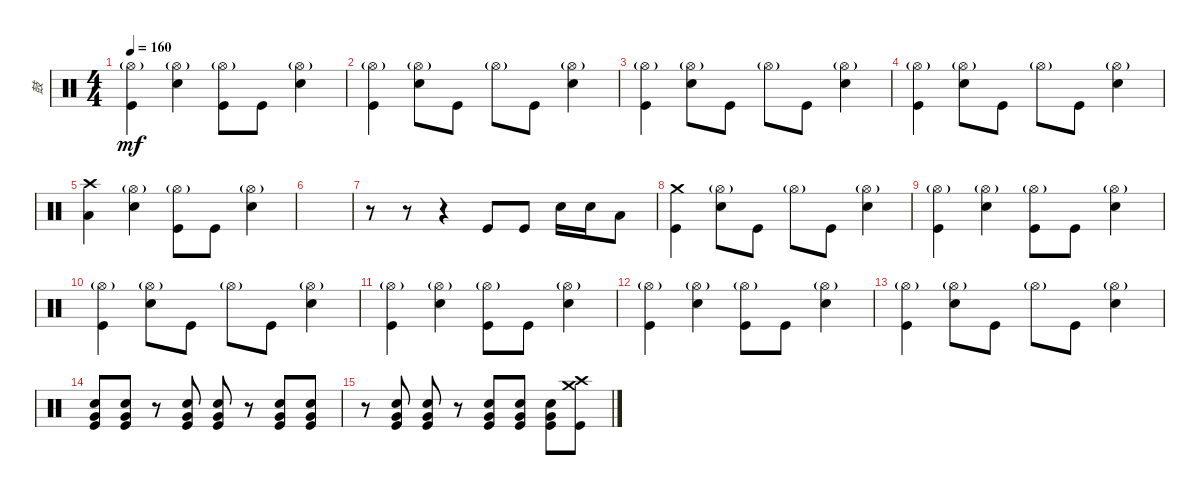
\track ("鼓" "鼓") {instrument percussion}
\staff {score}
\articulation defaults
\ts (4 4)
\tempo 160
\clef neutral
\ks c
("Kick (hit)" "Hi-Hat (open)"{g}).4{dy mf} ("Hi-Hat (open)"{g} "Snare (hit) 2").4 ("Kick (hit)" "Hi-Hat (open)"{g}).8 "Kick (hit)".8 ("Snare (hit) 2" "Hi-Hat (open)"{g}).4 |
("Kick (hit)" "Hi-Hat (open)"{g}).4 ("Snare (hit) 2" "Hi-Hat (open)"{g}).8 "Kick (hit)".8 "Hi-Hat (open)"{g}.8 "Kick (hit)".8 ("Snare (hit) 2" "Hi-Hat (open)"{g}).4 |
("Kick (hit)" "Hi-Hat (open)"{g}).4 ("Snare (hit) 2" "Hi-Hat (open)"{g}).8 "Kick (hit)".8 "Hi-Hat (open)"{g}.8 "Kick (hit)".8 ("Snare (hit) 2" "Hi-Hat (open)"{g}).4 |
("Kick (hit)" "Hi-Hat (open)"{g}).4 ("Snare (hit) 2" "Hi-Hat (open)"{g}).8 "Kick (hit)".8 "Hi-Hat (open)"{g}.8 "Kick (hit)".8 ("Snare (hit) 2" "Hi-Hat (open)"{g}).4 |
("Low Floor Tom (hit)" "Crash high (hit)").4 ("Hi-Hat (open)"{g} "Snare (hit) 2").4 ("Kick (hit)" "Hi-Hat (open)"{g}).8 "Kick (hit)".8 ("Snare (hit) 2" "Hi-Hat (open)"{g}).4 |
|
r.8 r.8 r.4 "Kick (hit)".8 "Kick (hit)".8 "Snare (hit) 2".16 "Snare (hit) 2".16 "Low Tom (hit)".8 |
("Kick (hit)" "Crash medium (hit)").4 ("Snare (hit) 2" "Hi-Hat (open)"{g}).8 "Kick (hit)".8 "Hi-Hat (open)"{g}.8 "Kick (hit)".8 ("Snare (hit) 2" "Hi-Hat (open)"{g}).4 |
("Kick (hit)" "Hi-Hat (open)"{g}).4 ("Hi-Hat (open)"{g} "Snare (hit) 2").4 ("Kick (hit)" "Hi-Hat (open)"{g}).8 "Kick (hit)".8 ("Snare (hit) 2" "Hi-Hat (open)"{g}).4 |
("Kick (hit)" "Hi-Hat (open)"{g}).4 ("Snare (hit) 2" "Hi-Hat (open)"{g}).8 "Kick (hit)".8 "Hi-Hat (open)"{g}.8 "Kick (hit)".8 ("Snare (hit) 2" "Hi-Hat (open)"{g}).4 |
("Kick (hit)" "Hi-Hat (open)"{g}).4 ("Hi-Hat (open)"{g} "Snare (hit) 2").4 ("Kick (hit)" "Hi-Hat (open)"{g}).8 "Kick (hit)".8 ("Snare (hit) 2" "Hi-Hat (open)"{g}).4 |
("Kick (hit)" "Hi-Hat (open)"{g}).4 ("Hi-Hat (open)"{g} "Snare (hit) 2").4 ("Kick (hit)" "Hi-Hat (open)"{g}).8 "Kick (hit)".8 ("Snare (hit) 2" "Hi-Hat (open)"{g}).4 |
("Kick (hit)" "Hi-Hat (open)"{g}).4 ("Snare (hit) 2" "Hi-Hat (open)"{g}).8 "Kick (hit)".8 "Hi-Hat (open)"{g}.8 "Kick (hit)".8 ("Snare (hit) 2" "Hi-Hat (open)"{g}).4 |
("Kick (hit)" "Very Low Tom (hit)" "Snare (hit) 2").8 ("Kick (hit)" "Very Low Tom (hit)" "Snare (hit) 2").8 r.8 ("Kick (hit)" "Very Low Tom (hit)" "Snare (hit) 2").8 ("Kick (hit)" "Very Low Tom (hit)" "Snare (hit) 2").8 r.8 ("Kick (hit)" "Very Low Tom (hit)" "Snare (hit) 2").8 ("Kick (hit)" "Very Low Tom (hit)" "Snare (hit) 2").8 |
r.8 ("Kick (hit)" "Very Low Tom (hit)" "Snare (hit) 2").8 ("Kick (hit)" "Very Low Tom (hit)" "Snare (hit) 2").8 r.8 ("Kick (hit)" "Very Low Tom (hit)" "Snare (hit) 2").8 ("Kick (hit)" "Very Low Tom (hit)" "Snare (hit) 2").8 ("Kick (hit)" "Very Low Tom (hit)" "Snare (hit) 2").8 ("Kick (hit)" "Crash medium (hit)" "Crash high (hit)").8
